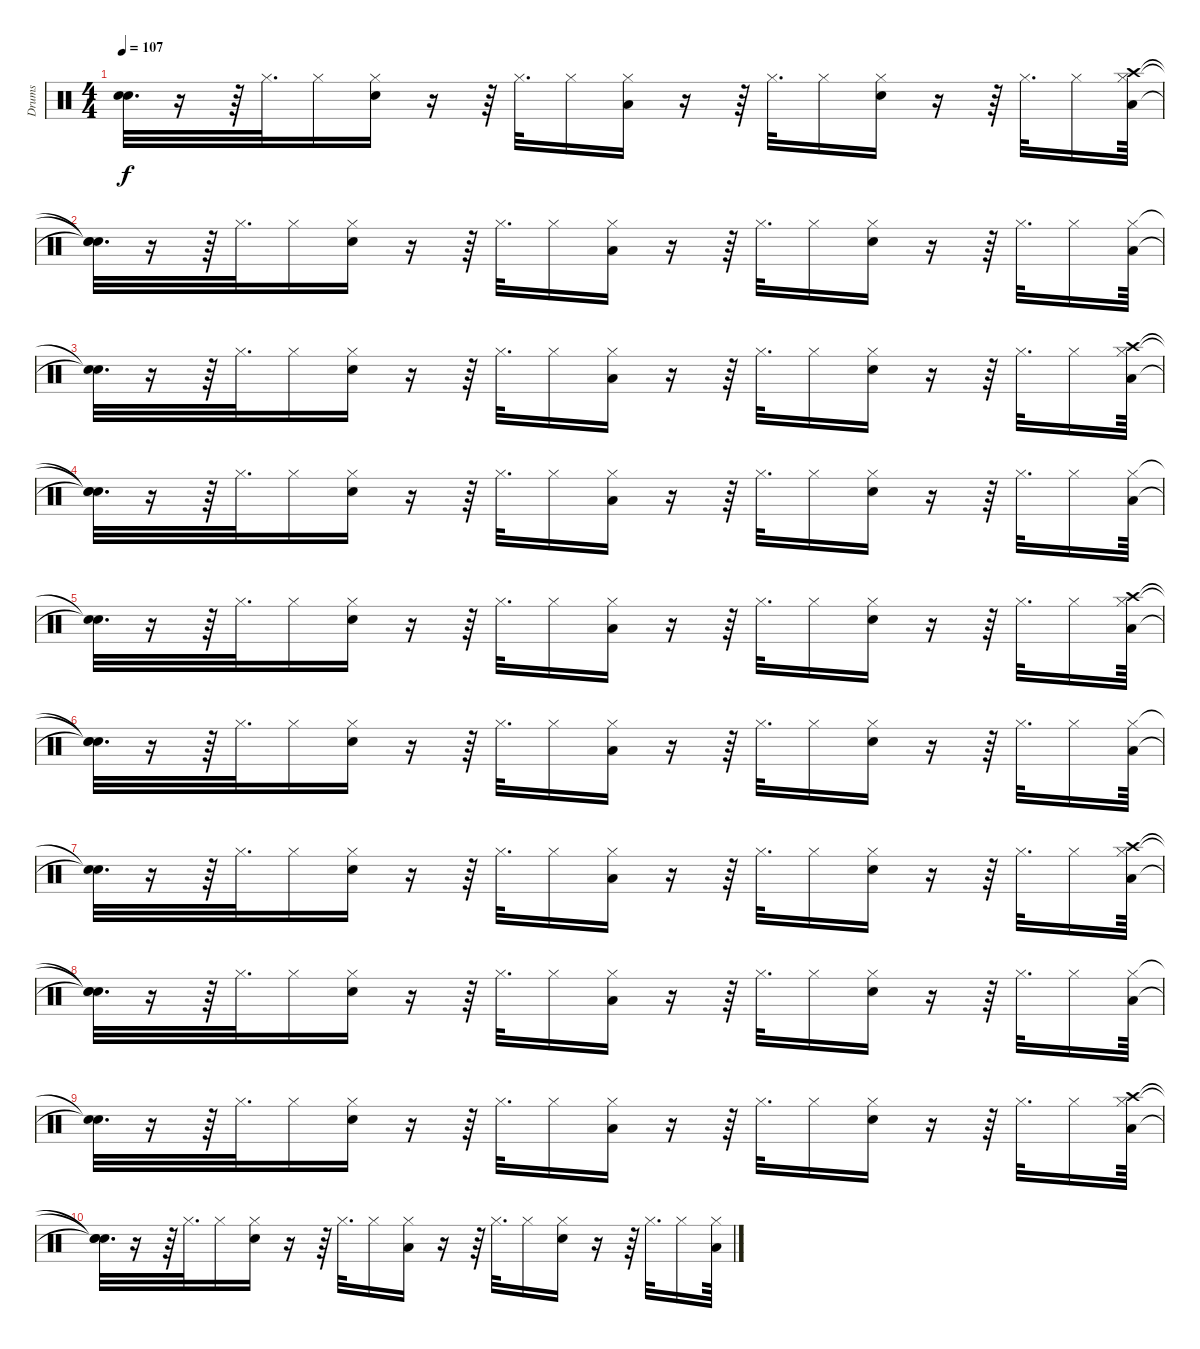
\track ("Drums" "Drums") {instrument percussion}
\staff {score}
\articulation defaults
\ts (4 4)
\tempo 107
\clef neutral
\ks c
("Snare (hit)"{t} "Snare (hit)"{t}).32{d dy f} r.16 r.64 "Hi-Hat (closed)".32{d} "Hi-Hat (closed)".16 ("Hi-Hat (closed)" "Snare (hit) 2").16 r.16 r.64 "Hi-Hat (closed)".32{d} "Hi-Hat (closed)".16 ("Hi-Hat (closed)" "Low Tom (hit)").16 r.16 r.64 "Hi-Hat (closed)".32{d} "Hi-Hat (closed)".16 ("Hi-Hat (closed)" "Snare (hit) 2").16 r.16 r.64 "Hi-Hat (closed)".32{d} "Hi-Hat (closed)".16 ("Hi-Hat (closed)" "Crash high (hit)" "Low Tom (hit)").64 |
("Snare (hit)"{t} "Snare (hit)"{t} "Snare (hit)"{t}).32{d} r.16 r.64 "Hi-Hat (closed)".32{d} "Hi-Hat (closed)".16 ("Hi-Hat (closed)" "Snare (hit) 2").16 r.16 r.64 "Hi-Hat (closed)".32{d} "Hi-Hat (closed)".16 ("Hi-Hat (closed)" "Low Tom (hit)").16 r.16 r.64 "Hi-Hat (closed)".32{d} "Hi-Hat (closed)".16 ("Hi-Hat (closed)" "Snare (hit) 2").16 r.16 r.64 "Hi-Hat (closed)".32{d} "Hi-Hat (closed)".16 ("Hi-Hat (closed)" "Low Tom (hit)").64 |
("Snare (hit)"{t} "Snare (hit)"{t}).32{d} r.16 r.64 "Hi-Hat (closed)".32{d} "Hi-Hat (closed)".16 ("Hi-Hat (closed)" "Snare (hit) 2").16 r.16 r.64 "Hi-Hat (closed)".32{d} "Hi-Hat (closed)".16 ("Hi-Hat (closed)" "Low Tom (hit)").16 r.16 r.64 "Hi-Hat (closed)".32{d} "Hi-Hat (closed)".16 ("Hi-Hat (closed)" "Snare (hit) 2").16 r.16 r.64 "Hi-Hat (closed)".32{d} "Hi-Hat (closed)".16 ("Hi-Hat (closed)" "Crash high (hit)" "Low Tom (hit)").64 |
("Snare (hit)"{t} "Snare (hit)"{t} "Snare (hit)"{t}).32{d} r.16 r.64 "Hi-Hat (closed)".32{d} "Hi-Hat (closed)".16 ("Hi-Hat (closed)" "Snare (hit) 2").16 r.16 r.64 "Hi-Hat (closed)".32{d} "Hi-Hat (closed)".16 ("Hi-Hat (closed)" "Low Tom (hit)").16 r.16 r.64 "Hi-Hat (closed)".32{d} "Hi-Hat (closed)".16 ("Hi-Hat (closed)" "Snare (hit) 2").16 r.16 r.64 "Hi-Hat (closed)".32{d} "Hi-Hat (closed)".16 ("Hi-Hat (closed)" "Low Tom (hit)").64 |
("Snare (hit)"{t} "Snare (hit)"{t}).32{d} r.16 r.64 "Hi-Hat (closed)".32{d} "Hi-Hat (closed)".16 ("Hi-Hat (closed)" "Snare (hit) 2").16 r.16 r.64 "Hi-Hat (closed)".32{d} "Hi-Hat (closed)".16 ("Hi-Hat (closed)" "Low Tom (hit)").16 r.16 r.64 "Hi-Hat (closed)".32{d} "Hi-Hat (closed)".16 ("Hi-Hat (closed)" "Snare (hit) 2").16 r.16 r.64 "Hi-Hat (closed)".32{d} "Hi-Hat (closed)".16 ("Hi-Hat (closed)" "Crash high (hit)" "Low Tom (hit)").64 |
("Snare (hit)"{t} "Snare (hit)"{t} "Snare (hit)"{t}).32{d} r.16 r.64 "Hi-Hat (closed)".32{d} "Hi-Hat (closed)".16 ("Hi-Hat (closed)" "Snare (hit) 2").16 r.16 r.64 "Hi-Hat (closed)".32{d} "Hi-Hat (closed)".16 ("Hi-Hat (closed)" "Low Tom (hit)").16 r.16 r.64 "Hi-Hat (closed)".32{d} "Hi-Hat (closed)".16 ("Hi-Hat (closed)" "Snare (hit) 2").16 r.16 r.64 "Hi-Hat (closed)".32{d} "Hi-Hat (closed)".16 ("Hi-Hat (closed)" "Low Tom (hit)").64 |
("Snare (hit)"{t} "Snare (hit)"{t}).32{d} r.16 r.64 "Hi-Hat (closed)".32{d} "Hi-Hat (closed)".16 ("Hi-Hat (closed)" "Snare (hit) 2").16 r.16 r.64 "Hi-Hat (closed)".32{d} "Hi-Hat (closed)".16 ("Hi-Hat (closed)" "Low Tom (hit)").16 r.16 r.64 "Hi-Hat (closed)".32{d} "Hi-Hat (closed)".16 ("Hi-Hat (closed)" "Snare (hit) 2").16 r.16 r.64 "Hi-Hat (closed)".32{d} "Hi-Hat (closed)".16 ("Hi-Hat (closed)" "Crash high (hit)" "Low Tom (hit)").64 |
("Snare (hit)"{t} "Snare (hit)"{t} "Snare (hit)"{t}).32{d} r.16 r.64 "Hi-Hat (closed)".32{d} "Hi-Hat (closed)".16 ("Hi-Hat (closed)" "Snare (hit) 2").16 r.16 r.64 "Hi-Hat (closed)".32{d} "Hi-Hat (closed)".16 ("Hi-Hat (closed)" "Low Tom (hit)").16 r.16 r.64 "Hi-Hat (closed)".32{d} "Hi-Hat (closed)".16 ("Hi-Hat (closed)" "Snare (hit) 2").16 r.16 r.64 "Hi-Hat (closed)".32{d} "Hi-Hat (closed)".16 ("Hi-Hat (closed)" "Low Tom (hit)").64 |
("Snare (hit)"{t} "Snare (hit)"{t}).32{d} r.16 r.64 "Hi-Hat (closed)".32{d} "Hi-Hat (closed)".16 ("Hi-Hat (closed)" "Snare (hit) 2").16 r.16 r.64 "Hi-Hat (closed)".32{d} "Hi-Hat (closed)".16 ("Hi-Hat (closed)" "Low Tom (hit)").16 r.16 r.64 "Hi-Hat (closed)".32{d} "Hi-Hat (closed)".16 ("Hi-Hat (closed)" "Snare (hit) 2").16 r.16 r.64 "Hi-Hat (closed)".32{d} "Hi-Hat (closed)".16 ("Hi-Hat (closed)" "Crash high (hit)" "Low Tom (hit)").64 |
("Snare (hit)"{t} "Snare (hit)"{t} "Snare (hit)"{t}).32{d} r.16 r.64 "Hi-Hat (closed)".32{d} "Hi-Hat (closed)".16 ("Hi-Hat (closed)" "Snare (hit) 2").16 r.16 r.64 "Hi-Hat (closed)".32{d} "Hi-Hat (closed)".16 ("Hi-Hat (closed)" "Low Tom (hit)").16 r.16 r.64 "Hi-Hat (closed)".32{d} "Hi-Hat (closed)".16 ("Hi-Hat (closed)" "Snare (hit) 2").16 r.16 r.64 "Hi-Hat (closed)".32{d} "Hi-Hat (closed)".16 ("Hi-Hat (closed)" "Low Tom (hit)").64
